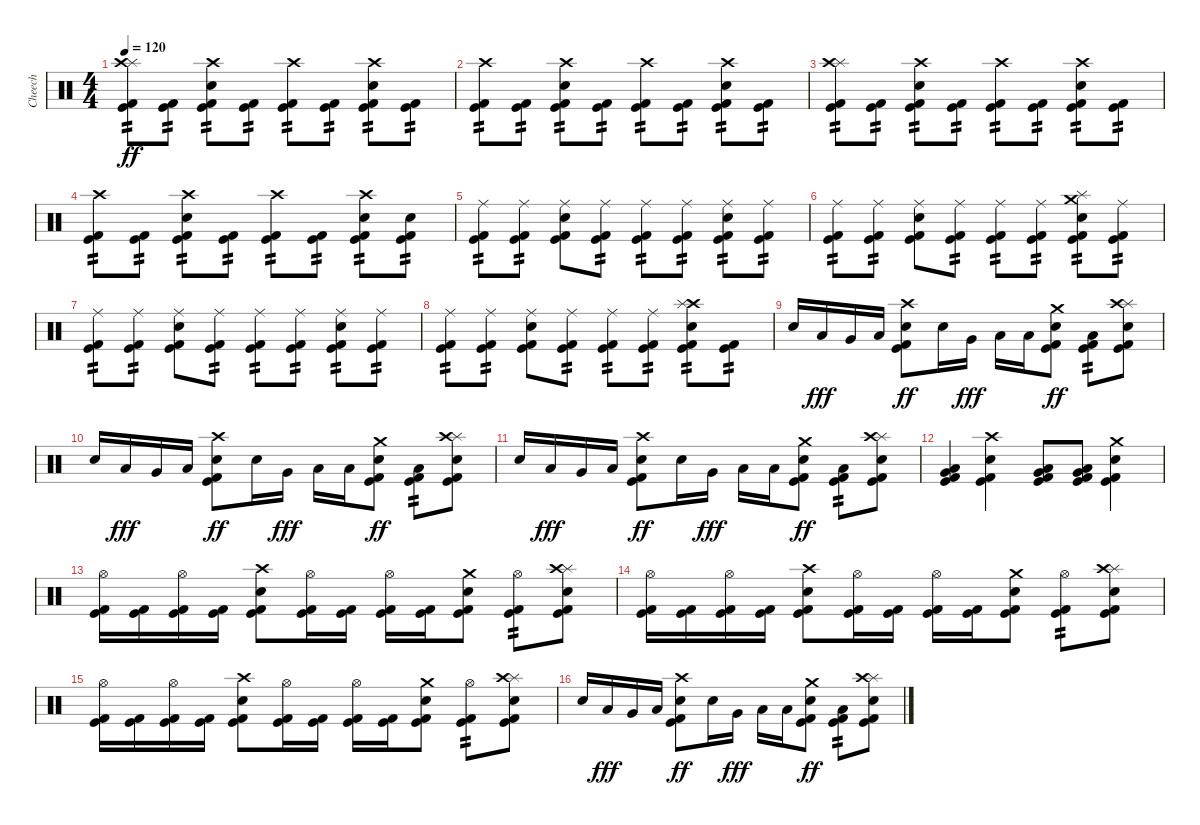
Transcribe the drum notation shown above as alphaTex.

\track ("Cheech" "Cheech") {instrument percussion}
\staff {score}
\articulation defaults
\ts (4 4)
\tempo 120
\clef neutral
\ks c
("Splash (hit)" "Crash high (hit)" "Kick (hit) 2" "Kick (hit)").8{tp 2 dy ff} ("Kick (hit) 2" "Kick (hit)").8{tp 2} ("Crash high (hit)" "Electric Snare (hit)" "Kick (hit) 2" "Kick (hit)").8{tp 2} ("Kick (hit) 2" "Kick (hit)").8{tp 2} ("Crash high (hit)" "Kick (hit) 2" "Kick (hit)").8{tp 2} ("Kick (hit) 2" "Kick (hit)").8{tp 2} ("Crash high (hit)" "Electric Snare (hit)" "Kick (hit) 2" "Kick (hit)").8{tp 2} ("Kick (hit) 2" "Kick (hit)").8{tp 2} |
("Crash high (hit)" "Kick (hit) 2" "Kick (hit)").8{tp 2} ("Kick (hit) 2" "Kick (hit)").8{tp 2} ("Crash high (hit)" "Electric Snare (hit)" "Kick (hit) 2" "Kick (hit)").8{tp 2} ("Kick (hit) 2" "Kick (hit)").8{tp 2} ("Crash high (hit)" "Kick (hit) 2" "Kick (hit)").8{tp 2} ("Kick (hit) 2" "Kick (hit)").8{tp 2} ("Crash high (hit)" "Electric Snare (hit)" "Kick (hit) 2" "Kick (hit)").8{tp 2} ("Kick (hit) 2" "Kick (hit)").8{tp 2} |
("Splash (hit)" "Crash high (hit)" "Kick (hit) 2" "Kick (hit)").8{tp 2} ("Kick (hit) 2" "Kick (hit)").8{tp 2} ("Crash high (hit)" "Electric Snare (hit)" "Kick (hit) 2" "Kick (hit)").8{tp 2} ("Kick (hit) 2" "Kick (hit)").8{tp 2} ("Crash high (hit)" "Kick (hit) 2" "Kick (hit)").8{tp 2} ("Kick (hit) 2" "Kick (hit)").8{tp 2} ("Crash high (hit)" "Electric Snare (hit)" "Kick (hit) 2" "Kick (hit)").8{tp 2} ("Kick (hit) 2" "Kick (hit)").8{tp 2} |
("Crash high (hit)" "Kick (hit) 2" "Kick (hit)").8{tp 2} ("Kick (hit) 2" "Kick (hit)").8{tp 2} ("Crash high (hit)" "Electric Snare (hit)" "Kick (hit) 2" "Kick (hit)").8{tp 2} ("Kick (hit) 2" "Kick (hit)").8{tp 2} ("Crash high (hit)" "Kick (hit) 2" "Kick (hit)").8{tp 2} ("Kick (hit) 2" "Kick (hit)").8{tp 2} ("Crash high (hit)" "Electric Snare (hit)" "Kick (hit) 2" "Kick (hit)").8{tp 2} ("Electric Snare (hit)" "Kick (hit) 2" "Kick (hit)").8{tp 2} |
("Ride (middle)" "Kick (hit) 2" "Kick (hit)").8{tp 2} ("Ride (middle)" "Kick (hit) 2" "Kick (hit)").8{tp 2} ("Ride (middle)" "Electric Snare (hit)" "Kick (hit) 2" "Kick (hit)").8 ("Ride (middle)" "Kick (hit) 2" "Kick (hit)").8{tp 2} ("Ride (middle)" "Kick (hit) 2" "Kick (hit)").8{tp 2} ("Ride (middle)" "Kick (hit) 2" "Kick (hit)").8{tp 2} ("Ride (middle)" "Electric Snare (hit)" "Kick (hit) 2" "Kick (hit)").8{tp 2} ("Ride (middle)" "Kick (hit) 2" "Kick (hit)").8{tp 2} |
("Ride (middle)" "Kick (hit) 2" "Kick (hit)").8{tp 2} ("Ride (middle)" "Kick (hit) 2" "Kick (hit)").8{tp 2} ("Ride (middle)" "Electric Snare (hit)" "Kick (hit) 2" "Kick (hit)").8 ("Ride (middle)" "Kick (hit) 2" "Kick (hit)").8{tp 2} ("Ride (middle)" "Kick (hit) 2" "Kick (hit)").8{tp 2} ("Ride (middle)" "Kick (hit) 2" "Kick (hit)").8{tp 2} ("Crash medium (hit)" "Splash (hit)" "Electric Snare (hit)" "Kick (hit) 2" "Kick (hit)").8{tp 2} ("Ride (middle)" "Kick (hit) 2" "Kick (hit)").8{tp 2} |
("Ride (middle)" "Kick (hit) 2" "Kick (hit)").8{tp 2} ("Ride (middle)" "Kick (hit) 2" "Kick (hit)").8{tp 2} ("Ride (middle)" "Electric Snare (hit)" "Kick (hit) 2" "Kick (hit)").8 ("Ride (middle)" "Kick (hit) 2" "Kick (hit)").8{tp 2} ("Ride (middle)" "Kick (hit) 2" "Kick (hit)").8{tp 2} ("Ride (middle)" "Kick (hit) 2" "Kick (hit)").8{tp 2} ("Ride (middle)" "Electric Snare (hit)" "Kick (hit) 2" "Kick (hit)").8{tp 2} ("Ride (middle)" "Kick (hit) 2" "Kick (hit)").8{tp 2} |
("Ride (middle)" "Kick (hit) 2" "Kick (hit)").8{tp 2} ("Ride (middle)" "Kick (hit) 2" "Kick (hit)").8{tp 2} ("Ride (middle)" "Electric Snare (hit)" "Kick (hit) 2" "Kick (hit)").8 ("Ride (middle)" "Kick (hit) 2" "Kick (hit)").8{tp 2} ("Ride (middle)" "Kick (hit) 2" "Kick (hit)").8{tp 2} ("Ride (middle)" "Kick (hit) 2" "Kick (hit)").8{tp 2} ("Crash high (hit)" "Splash (hit)" "Electric Snare (hit)" "Kick (hit) 2" "Kick (hit)").8{tp 2} ("Kick (hit) 2" "Kick (hit)").8{tp 2} |
"Electric Snare (hit)".16 "Low Tom (hit)".16{dy fff} "Very Low Tom (hit)".16 "Low Floor Tom (hit)".16 ("Crash high (hit)" "Electric Snare (hit)" "Kick (hit) 2" "Kick (hit)").8{dy ff} "Electric Snare (hit)".16 "Very Low Tom (hit)".16{dy fff} "Low Floor Tom (hit)".16 "Low Floor Tom (hit)".16 ("Crash medium (hit)" "Electric Snare (hit)" "Kick (hit) 2" "Kick (hit)").8{dy ff} ("Low Floor Tom (hit)" "Kick (hit) 2" "Kick (hit)").8{tp 2} ("Splash (hit)" "Crash high (hit)" "Electric Snare (hit)" "Kick (hit) 2" "Kick (hit)").8 |
"Electric Snare (hit)".16 "Low Tom (hit)".16{dy fff} "Very Low Tom (hit)".16 "Low Floor Tom (hit)".16 ("Crash high (hit)" "Electric Snare (hit)" "Kick (hit) 2" "Kick (hit)").8{dy ff} "Electric Snare (hit)".16 "Very Low Tom (hit)".16{dy fff} "Low Floor Tom (hit)".16 "Low Floor Tom (hit)".16 ("Crash medium (hit)" "Electric Snare (hit)" "Kick (hit) 2" "Kick (hit)").8{dy ff} ("Low Floor Tom (hit)" "Kick (hit) 2" "Kick (hit)").8{tp 2} ("Splash (hit)" "Crash high (hit)" "Electric Snare (hit)" "Kick (hit) 2" "Kick (hit)").8 |
"Electric Snare (hit)".16 "Low Tom (hit)".16{dy fff} "Very Low Tom (hit)".16 "Low Floor Tom (hit)".16 ("Crash high (hit)" "Electric Snare (hit)" "Kick (hit) 2" "Kick (hit)").8{dy ff} "Electric Snare (hit)".16 "Very Low Tom (hit)".16{dy fff} "Low Floor Tom (hit)".16 "Low Floor Tom (hit)".16 ("Crash medium (hit)" "Electric Snare (hit)" "Kick (hit) 2" "Kick (hit)").8{dy ff} ("Low Floor Tom (hit)" "Kick (hit) 2" "Kick (hit)").8{tp 2} ("Splash (hit)" "Crash high (hit)" "Electric Snare (hit)" "Kick (hit) 2" "Kick (hit)").8 |
("Very Low Tom (hit)" "Low Tom (hit)" "Kick (hit) 2" "Kick (hit)").4 ("Crash high (hit)" "Electric Snare (hit)" "Kick (hit) 2" "Kick (hit)").4 ("Very Low Tom (hit)" "Low Floor Tom (hit)" "Kick (hit) 2" "Kick (hit)").8 ("Very Low Tom (hit)" "Low Floor Tom (hit)" "Kick (hit) 2" "Kick (hit)").8 ("Crash medium (hit)" "Electric Snare (hit)" "Kick (hit) 2" "Kick (hit)").4 |
("Hi-Hat (open)" "Kick (hit) 2" "Kick (hit)").16 ("Kick (hit) 2" "Kick (hit)").16 ("Hi-Hat (open)" "Kick (hit) 2" "Kick (hit)").16 ("Kick (hit) 2" "Kick (hit)").16 ("Crash high (hit)" "Electric Snare (hit)" "Kick (hit) 2" "Kick (hit)").8 ("Hi-Hat (open)" "Kick (hit) 2" "Kick (hit)").16 ("Kick (hit) 2" "Kick (hit)").16 ("Hi-Hat (open)" "Kick (hit) 2" "Kick (hit)").16 ("Kick (hit) 2" "Kick (hit)").16 ("Crash medium (hit)" "Electric Snare (hit)" "Kick (hit) 2" "Kick (hit)").8 ("Hi-Hat (open)" "Kick (hit) 2" "Kick (hit)").8{tp 2} ("Splash (hit)" "Crash high (hit)" "Electric Snare (hit)" "Kick (hit) 2" "Kick (hit)").8 |
("Hi-Hat (open)" "Kick (hit) 2" "Kick (hit)").16 ("Kick (hit) 2" "Kick (hit)").16 ("Hi-Hat (open)" "Kick (hit) 2" "Kick (hit)").16 ("Kick (hit) 2" "Kick (hit)").16 ("Crash high (hit)" "Electric Snare (hit)" "Kick (hit) 2" "Kick (hit)").8 ("Hi-Hat (open)" "Kick (hit) 2" "Kick (hit)").16 ("Kick (hit) 2" "Kick (hit)").16 ("Hi-Hat (open)" "Kick (hit) 2" "Kick (hit)").16 ("Kick (hit) 2" "Kick (hit)").16 ("Crash medium (hit)" "Electric Snare (hit)" "Kick (hit) 2" "Kick (hit)").8 ("Hi-Hat (open)" "Kick (hit) 2" "Kick (hit)").8{tp 2} ("Splash (hit)" "Crash high (hit)" "Electric Snare (hit)" "Kick (hit) 2" "Kick (hit)").8 |
("Hi-Hat (open)" "Kick (hit) 2" "Kick (hit)").16 ("Kick (hit) 2" "Kick (hit)").16 ("Hi-Hat (open)" "Kick (hit) 2" "Kick (hit)").16 ("Kick (hit) 2" "Kick (hit)").16 ("Crash high (hit)" "Electric Snare (hit)" "Kick (hit) 2" "Kick (hit)").8 ("Hi-Hat (open)" "Kick (hit) 2" "Kick (hit)").16 ("Kick (hit) 2" "Kick (hit)").16 ("Hi-Hat (open)" "Kick (hit) 2" "Kick (hit)").16 ("Kick (hit) 2" "Kick (hit)").16 ("Crash medium (hit)" "Electric Snare (hit)" "Kick (hit) 2" "Kick (hit)").8 ("Hi-Hat (open)" "Kick (hit) 2" "Kick (hit)").8{tp 2} ("Splash (hit)" "Crash high (hit)" "Electric Snare (hit)" "Kick (hit) 2" "Kick (hit)").8 |
"Electric Snare (hit)".16 "Low Tom (hit)".16{dy fff} "Very Low Tom (hit)".16 "Low Floor Tom (hit)".16 ("Crash high (hit)" "Electric Snare (hit)" "Kick (hit) 2" "Kick (hit)").8{dy ff} "Electric Snare (hit)".16 "Very Low Tom (hit)".16{dy fff} "Low Floor Tom (hit)".16 "Low Floor Tom (hit)".16 ("Crash medium (hit)" "Electric Snare (hit)" "Kick (hit) 2" "Kick (hit)").8{dy ff} ("Low Floor Tom (hit)" "Kick (hit) 2" "Kick (hit)").8{tp 2} ("Splash (hit)" "Crash high (hit)" "Electric Snare (hit)" "Kick (hit) 2" "Kick (hit)").8
